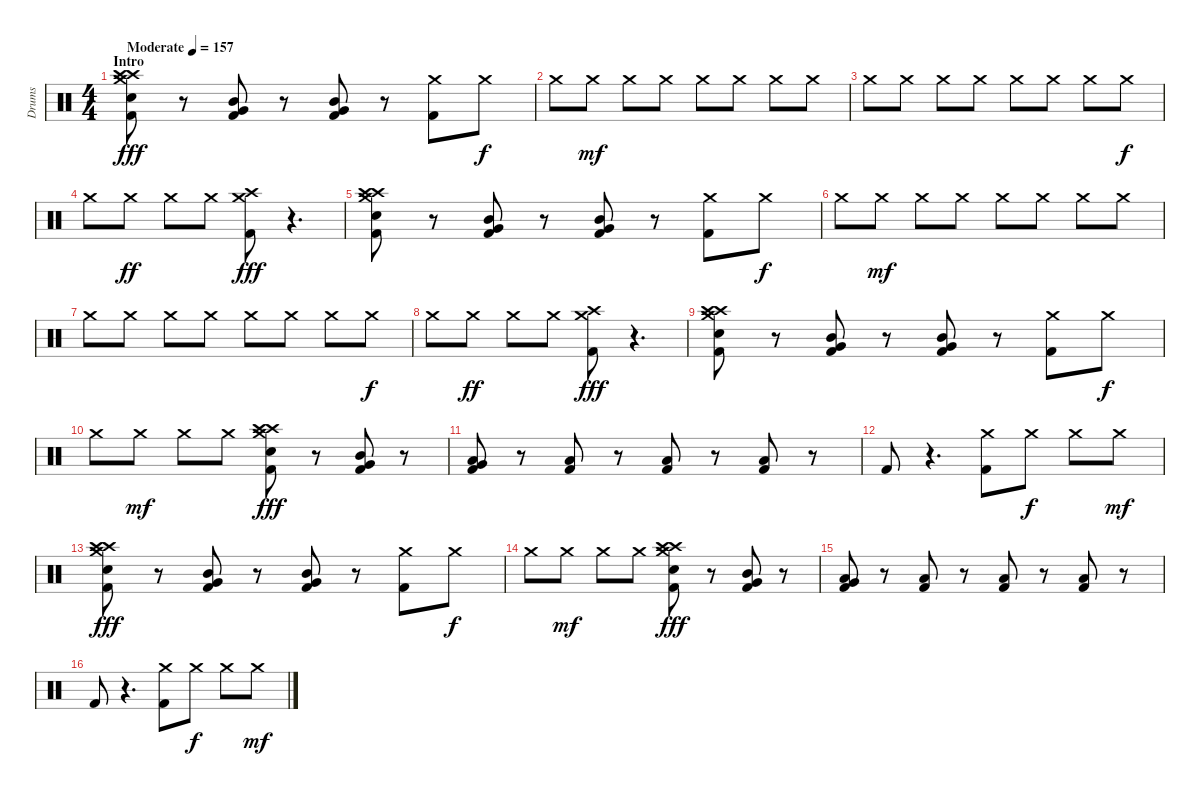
\track ("Drums" "Drums") {instrument percussion}
\staff {score}
\articulation defaults
\ts (4 4)
\section ("" "Intro")
\tempo (157 "Moderate")
\clef neutral
\ks c
("Kick (hit) 2" "Snare (hit) 2" "Crash high (hit)" "Crash high (hit)" "Crash medium (hit)").8{dy fff} r.8 ("Kick (hit) 2" "Very Low Tom (hit)" "Mid Tom (hit)").8 r.8 ("Kick (hit) 2" "Very Low Tom (hit)" "Mid Tom (hit)").8 r.8 ("Kick (hit) 2" "Crash medium (hit)").8 "Crash medium (hit)".8{dy f} |
"Crash medium (hit)".8 "Crash medium (hit)".8{dy mf} "Crash medium (hit)".8 "Crash medium (hit)".8 "Crash medium (hit)".8 "Crash medium (hit)".8 "Crash medium (hit)".8 "Crash medium (hit)".8 |
"Crash medium (hit)".8 "Crash medium (hit)".8 "Crash medium (hit)".8 "Crash medium (hit)".8 "Crash medium (hit)".8 "Crash medium (hit)".8 "Crash medium (hit)".8 "Crash medium (hit)".8{dy f} |
"Crash medium (hit)".8 "Crash medium (hit)".8{dy ff} "Crash medium (hit)".8 "Crash medium (hit)".8 ("Kick (hit) 2" "Crash high (hit)" "Crash medium (hit)").8{dy fff} r.4{d} |
("Kick (hit) 2" "Snare (hit) 2" "Crash high (hit)" "Crash high (hit)" "Crash medium (hit)").8 r.8 ("Kick (hit) 2" "Very Low Tom (hit)" "Mid Tom (hit)").8 r.8 ("Kick (hit) 2" "Very Low Tom (hit)" "Mid Tom (hit)").8 r.8 ("Kick (hit) 2" "Crash medium (hit)").8 "Crash medium (hit)".8{dy f} |
"Crash medium (hit)".8 "Crash medium (hit)".8{dy mf} "Crash medium (hit)".8 "Crash medium (hit)".8 "Crash medium (hit)".8 "Crash medium (hit)".8 "Crash medium (hit)".8 "Crash medium (hit)".8 |
"Crash medium (hit)".8 "Crash medium (hit)".8 "Crash medium (hit)".8 "Crash medium (hit)".8 "Crash medium (hit)".8 "Crash medium (hit)".8 "Crash medium (hit)".8 "Crash medium (hit)".8{dy f} |
"Crash medium (hit)".8 "Crash medium (hit)".8{dy ff} "Crash medium (hit)".8 "Crash medium (hit)".8 ("Kick (hit) 2" "Crash high (hit)" "Crash medium (hit)").8{dy fff} r.4{d} |
("Kick (hit) 2" "Snare (hit) 2" "Crash high (hit)" "Crash high (hit)" "Crash medium (hit)").8 r.8 ("Kick (hit) 2" "Very Low Tom (hit)" "Mid Tom (hit)").8 r.8 ("Kick (hit) 2" "Very Low Tom (hit)" "Mid Tom (hit)").8 r.8 ("Kick (hit) 2" "Crash medium (hit)").8 "Crash medium (hit)".8{dy f} |
"Crash medium (hit)".8 "Crash medium (hit)".8{dy mf} "Crash medium (hit)".8 "Crash medium (hit)".8 ("Kick (hit) 2" "Snare (hit) 2" "Crash high (hit)" "Crash high (hit)" "Crash medium (hit)").8{dy fff} r.8 ("Kick (hit) 2" "Very Low Tom (hit)" "Mid Tom (hit)").8 r.8 |
("Kick (hit) 2" "Very Low Tom (hit)" "Low Tom (hit)").8 r.8 ("Kick (hit) 2" "Low Tom (hit)").8 r.8 ("Kick (hit) 2" "Low Tom (hit)").8 r.8 ("Kick (hit) 2" "Low Tom (hit)").8 r.8 |
"Kick (hit) 2".8 r.4{d} ("Kick (hit) 2" "Crash medium (hit)").8 "Crash medium (hit)".8{dy f} "Crash medium (hit)".8 "Crash medium (hit)".8{dy mf} |
("Kick (hit) 2" "Snare (hit) 2" "Crash high (hit)" "Crash high (hit)" "Crash medium (hit)").8{dy fff} r.8 ("Kick (hit) 2" "Very Low Tom (hit)" "Mid Tom (hit)").8 r.8 ("Kick (hit) 2" "Very Low Tom (hit)" "Mid Tom (hit)").8 r.8 ("Kick (hit) 2" "Crash medium (hit)").8 "Crash medium (hit)".8{dy f} |
"Crash medium (hit)".8 "Crash medium (hit)".8{dy mf} "Crash medium (hit)".8 "Crash medium (hit)".8 ("Kick (hit) 2" "Snare (hit) 2" "Crash high (hit)" "Crash high (hit)" "Crash medium (hit)").8{dy fff} r.8 ("Kick (hit) 2" "Very Low Tom (hit)" "Mid Tom (hit)").8 r.8 |
("Kick (hit) 2" "Very Low Tom (hit)" "Low Tom (hit)").8 r.8 ("Kick (hit) 2" "Low Tom (hit)").8 r.8 ("Kick (hit) 2" "Low Tom (hit)").8 r.8 ("Kick (hit) 2" "Low Tom (hit)").8 r.8 |
"Kick (hit) 2".8 r.4{d} ("Kick (hit) 2" "Crash medium (hit)").8 "Crash medium (hit)".8{dy f} "Crash medium (hit)".8 "Crash medium (hit)".8{dy mf}
